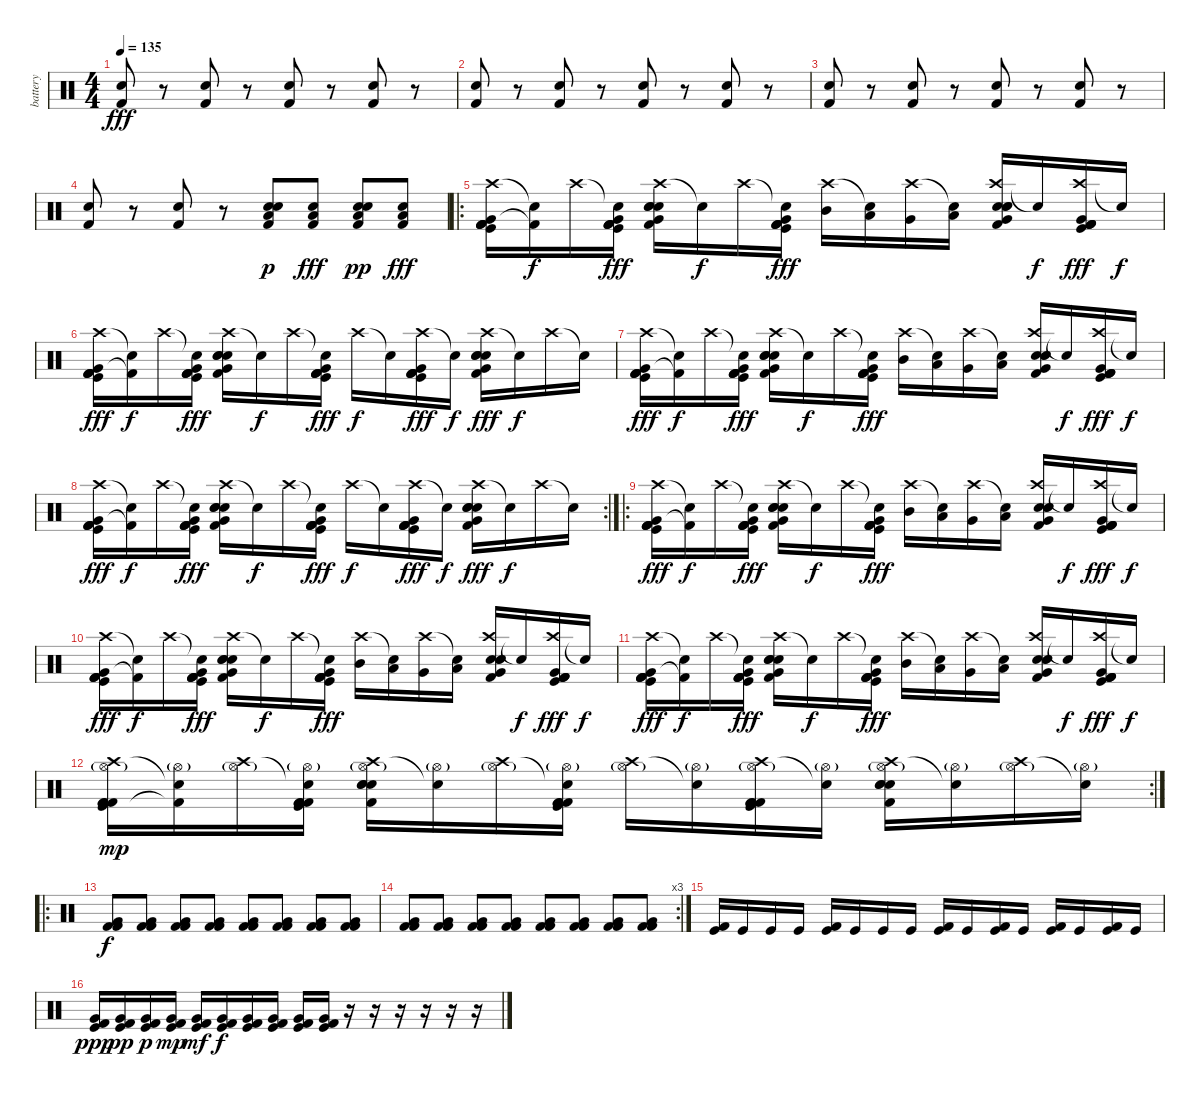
\track ("battery" "battery") {instrument percussion}
\staff {score}
\articulation defaults
\ts (4 4)
\tempo 135
\clef neutral
\ks c
("Kick (hit) 2" "Hand Clap (hit)").8{dy fff} r.8 ("Kick (hit) 2" "Hand Clap (hit)").8 r.8 ("Kick (hit) 2" "Hand Clap (hit)").8 r.8 ("Kick (hit) 2" "Hand Clap (hit)").8 r.8 |
("Kick (hit) 2" "Hand Clap (hit)").8 r.8 ("Kick (hit) 2" "Hand Clap (hit)").8 r.8 ("Kick (hit) 2" "Hand Clap (hit)").8 r.8 ("Kick (hit) 2" "Hand Clap (hit)").8 r.8 |
("Kick (hit) 2" "Hand Clap (hit)").8 r.8 ("Kick (hit) 2" "Hand Clap (hit)").8 r.8 ("Kick (hit) 2" "Hand Clap (hit)").8 r.8 ("Kick (hit) 2" "Hand Clap (hit)").8 r.8 |
("Kick (hit) 2" "Hand Clap (hit)").8 r.8 ("Kick (hit) 2" "Hand Clap (hit)").8 r.8 ("Electric Snare (hit)" "Low Floor Tom (hit)" "Kick (hit) 2" "Hand Clap (hit)").8{dy p} ("Electric Snare (hit)" "Low Floor Tom (hit)" "Kick (hit) 2").8{dy fff} ("Electric Snare (hit)" "Low Floor Tom (hit)" "Kick (hit) 2" "Hand Clap (hit)").8{dy pp} ("Electric Snare (hit)" "Low Floor Tom (hit)" "Kick (hit) 2").8{dy fff} |
\ro
("Crash high (hit)" "Very Low Tom (hit)" "Kick (hit)" "Kick (hit) 2" "Kick (hit) 2" "Kick (hit) 2").16 ("Snare (hit)"{t} "Kick (hit) 2"{t}).16{dy f} "Crash high (hit)".16 ("Snare (hit)"{t} "Very Low Tom (hit)" "Kick (hit)" "Kick (hit) 2" "Kick (hit) 2" "Kick (hit) 2").16{dy fff} ("Crash high (hit)" "Very Low Tom (hit)" "Kick (hit) 2" "Electric Snare (hit)" "Electric Snare (hit)" "Electric Snare (hit)").16 "Snare (hit)"{t}.16{dy f} "Crash high (hit)".16 ("Snare (hit)"{t} "Very Low Tom (hit)" "Kick (hit)" "Kick (hit) 2" "Kick (hit) 2" "Kick (hit) 2").16{dy fff} ("Crash high (hit)" "Mid Tom (hit)").16 ("Snare (hit)"{t} "Low Tom (hit)").16 ("Crash high (hit)" "Very Low Tom (hit)").16 ("Snare (hit)"{t} "Low Floor Tom (hit)").16 ("Crash high (hit)" "Very Low Tom (hit)" "Kick (hit) 2" "Electric Snare (hit)" "Electric Snare (hit)" "Electric Snare (hit)").16 "Snare (hit)"{t}.16{dy f} ("Crash high (hit)" "Very Low Tom (hit)" "Kick (hit)" "Kick (hit) 2" "Kick (hit) 2" "Kick (hit) 2").16{dy fff} "Snare (hit)"{t}.16{dy f} |
("Crash high (hit)" "Very Low Tom (hit)" "Kick (hit)" "Kick (hit) 2" "Kick (hit) 2" "Kick (hit) 2").16{dy fff} ("Snare (hit)"{t} "Kick (hit) 2"{t}).16{dy f} "Crash high (hit)".16 ("Snare (hit)"{t} "Very Low Tom (hit)" "Kick (hit)" "Kick (hit) 2" "Kick (hit) 2" "Kick (hit) 2").16{dy fff} ("Crash high (hit)" "Very Low Tom (hit)" "Kick (hit) 2" "Electric Snare (hit)" "Electric Snare (hit)" "Electric Snare (hit)").16 "Snare (hit)"{t}.16{dy f} "Crash high (hit)".16 ("Snare (hit)"{t} "Very Low Tom (hit)" "Kick (hit)" "Kick (hit) 2" "Kick (hit) 2" "Kick (hit) 2").16{dy fff} "Crash high (hit)".16{dy f} "Snare (hit)"{t}.16 ("Crash high (hit)" "Very Low Tom (hit)" "Kick (hit)" "Kick (hit) 2" "Kick (hit) 2" "Kick (hit) 2").16{dy fff} "Snare (hit)"{t}.16{dy f} ("Crash high (hit)" "Very Low Tom (hit)" "Kick (hit) 2" "Electric Snare (hit)" "Electric Snare (hit)" "Electric Snare (hit)").16{dy fff} "Snare (hit)"{t}.16{dy f} "Crash high (hit)".16 "Snare (hit)"{t}.16 |
("Crash high (hit)" "Very Low Tom (hit)" "Kick (hit)" "Kick (hit) 2" "Kick (hit) 2" "Kick (hit) 2").16{dy fff} ("Snare (hit)"{t} "Kick (hit) 2"{t}).16{dy f} "Crash high (hit)".16 ("Snare (hit)"{t} "Very Low Tom (hit)" "Kick (hit)" "Kick (hit) 2" "Kick (hit) 2" "Kick (hit) 2").16{dy fff} ("Crash high (hit)" "Very Low Tom (hit)" "Kick (hit) 2" "Electric Snare (hit)" "Electric Snare (hit)" "Electric Snare (hit)").16 "Snare (hit)"{t}.16{dy f} "Crash high (hit)".16 ("Snare (hit)"{t} "Very Low Tom (hit)" "Kick (hit)" "Kick (hit) 2" "Kick (hit) 2" "Kick (hit) 2").16{dy fff} ("Crash high (hit)" "Mid Tom (hit)").16 ("Snare (hit)"{t} "Low Tom (hit)").16 ("Crash high (hit)" "Very Low Tom (hit)").16 ("Snare (hit)"{t} "Low Floor Tom (hit)").16 ("Crash high (hit)" "Very Low Tom (hit)" "Kick (hit) 2" "Electric Snare (hit)" "Electric Snare (hit)" "Electric Snare (hit)").16 "Snare (hit)"{t}.16{dy f} ("Crash high (hit)" "Very Low Tom (hit)" "Kick (hit)" "Kick (hit) 2" "Kick (hit) 2" "Kick (hit) 2").16{dy fff} "Snare (hit)"{t}.16{dy f} |
\rc 2
("Crash high (hit)" "Very Low Tom (hit)" "Kick (hit)" "Kick (hit) 2" "Kick (hit) 2" "Kick (hit) 2").16{dy fff} ("Snare (hit)"{t} "Kick (hit) 2"{t}).16{dy f} "Crash high (hit)".16 ("Snare (hit)"{t} "Very Low Tom (hit)" "Kick (hit)" "Kick (hit) 2" "Kick (hit) 2" "Kick (hit) 2").16{dy fff} ("Crash high (hit)" "Very Low Tom (hit)" "Kick (hit) 2" "Electric Snare (hit)" "Electric Snare (hit)" "Electric Snare (hit)").16 "Snare (hit)"{t}.16{dy f} "Crash high (hit)".16 ("Snare (hit)"{t} "Very Low Tom (hit)" "Kick (hit)" "Kick (hit) 2" "Kick (hit) 2" "Kick (hit) 2").16{dy fff} "Crash high (hit)".16{dy f} "Snare (hit)"{t}.16 ("Crash high (hit)" "Very Low Tom (hit)" "Kick (hit)" "Kick (hit) 2" "Kick (hit) 2" "Kick (hit) 2").16{dy fff} "Snare (hit)"{t}.16{dy f} ("Crash high (hit)" "Very Low Tom (hit)" "Kick (hit) 2" "Electric Snare (hit)" "Electric Snare (hit)" "Electric Snare (hit)").16{dy fff} "Snare (hit)"{t}.16{dy f} "Crash high (hit)".16 "Snare (hit)"{t}.16 |
\ro
("Crash high (hit)" "Very Low Tom (hit)" "Kick (hit)" "Kick (hit) 2" "Kick (hit) 2" "Kick (hit) 2").16{dy fff} ("Snare (hit)"{t} "Kick (hit) 2"{t}).16{dy f} "Crash high (hit)".16 ("Snare (hit)"{t} "Very Low Tom (hit)" "Kick (hit)" "Kick (hit) 2" "Kick (hit) 2" "Kick (hit) 2").16{dy fff} ("Crash high (hit)" "Very Low Tom (hit)" "Kick (hit) 2" "Electric Snare (hit)" "Electric Snare (hit)" "Electric Snare (hit)").16 "Snare (hit)"{t}.16{dy f} "Crash high (hit)".16 ("Snare (hit)"{t} "Very Low Tom (hit)" "Kick (hit)" "Kick (hit) 2" "Kick (hit) 2" "Kick (hit) 2").16{dy fff} ("Crash high (hit)" "Mid Tom (hit)").16 ("Snare (hit)"{t} "Low Tom (hit)").16 ("Crash high (hit)" "Very Low Tom (hit)").16 ("Snare (hit)"{t} "Low Floor Tom (hit)").16 ("Crash high (hit)" "Very Low Tom (hit)" "Kick (hit) 2" "Electric Snare (hit)" "Electric Snare (hit)" "Electric Snare (hit)").16 "Snare (hit)"{t}.16{dy f} ("Crash high (hit)" "Very Low Tom (hit)" "Kick (hit)" "Kick (hit) 2" "Kick (hit) 2" "Kick (hit) 2").16{dy fff} "Snare (hit)"{t}.16{dy f} |
("Crash high (hit)" "Very Low Tom (hit)" "Kick (hit)" "Kick (hit) 2" "Kick (hit) 2" "Kick (hit) 2").16{dy fff} ("Snare (hit)"{t} "Kick (hit) 2"{t}).16{dy f} "Crash high (hit)".16 ("Snare (hit)"{t} "Very Low Tom (hit)" "Kick (hit)" "Kick (hit) 2" "Kick (hit) 2" "Kick (hit) 2").16{dy fff} ("Crash high (hit)" "Very Low Tom (hit)" "Kick (hit) 2" "Electric Snare (hit)" "Electric Snare (hit)" "Electric Snare (hit)").16 "Snare (hit)"{t}.16{dy f} "Crash high (hit)".16 ("Snare (hit)"{t} "Very Low Tom (hit)" "Kick (hit)" "Kick (hit) 2" "Kick (hit) 2" "Kick (hit) 2").16{dy fff} ("Crash high (hit)" "Mid Tom (hit)").16 ("Snare (hit)"{t} "Low Tom (hit)").16 ("Crash high (hit)" "Very Low Tom (hit)").16 ("Snare (hit)"{t} "Low Floor Tom (hit)").16 ("Crash high (hit)" "Very Low Tom (hit)" "Kick (hit) 2" "Electric Snare (hit)" "Electric Snare (hit)" "Electric Snare (hit)").16 "Snare (hit)"{t}.16{dy f} ("Crash high (hit)" "Very Low Tom (hit)" "Kick (hit)" "Kick (hit) 2" "Kick (hit) 2" "Kick (hit) 2").16{dy fff} "Snare (hit)"{t}.16{dy f} |
("Crash high (hit)" "Very Low Tom (hit)" "Kick (hit)" "Kick (hit) 2" "Kick (hit) 2" "Kick (hit) 2").16{dy fff} ("Snare (hit)"{t} "Kick (hit) 2"{t}).16{dy f} "Crash high (hit)".16 ("Snare (hit)"{t} "Very Low Tom (hit)" "Kick (hit)" "Kick (hit) 2" "Kick (hit) 2" "Kick (hit) 2").16{dy fff} ("Crash high (hit)" "Very Low Tom (hit)" "Kick (hit) 2" "Electric Snare (hit)" "Electric Snare (hit)" "Electric Snare (hit)").16 "Snare (hit)"{t}.16{dy f} "Crash high (hit)".16 ("Snare (hit)"{t} "Very Low Tom (hit)" "Kick (hit)" "Kick (hit) 2" "Kick (hit) 2" "Kick (hit) 2").16{dy fff} ("Crash high (hit)" "Mid Tom (hit)").16 ("Snare (hit)"{t} "Low Tom (hit)").16 ("Crash high (hit)" "Very Low Tom (hit)").16 ("Snare (hit)"{t} "Low Floor Tom (hit)").16 ("Crash high (hit)" "Very Low Tom (hit)" "Kick (hit) 2" "Electric Snare (hit)" "Electric Snare (hit)" "Electric Snare (hit)").16 "Snare (hit)"{t}.16{dy f} ("Crash high (hit)" "Very Low Tom (hit)" "Kick (hit)" "Kick (hit) 2" "Kick (hit) 2" "Kick (hit) 2").16{dy fff} "Snare (hit)"{t}.16{dy f} |
\rc 2
("Crash high (hit)" "Hi-Hat (open)"{g} "Kick (hit)" "Kick (hit) 2" "Kick (hit) 2" "Kick (hit) 2").16{dy mp} ("Snare (hit)"{t} "Hi-Hat (open)"{g} "Kick (hit) 2"{t}).16 ("Crash high (hit)" "Hi-Hat (open)"{g}).16 ("Snare (hit)"{t} "Hi-Hat (open)"{g} "Kick (hit)" "Kick (hit) 2" "Kick (hit) 2" "Kick (hit) 2").16 ("Crash high (hit)" "Hi-Hat (open)"{g} "Kick (hit) 2" "Electric Snare (hit)" "Electric Snare (hit)" "Electric Snare (hit)").16 ("Snare (hit)"{t} "Hi-Hat (open)"{g}).16 ("Crash high (hit)" "Hi-Hat (open)"{g}).16 ("Snare (hit)"{t} "Hi-Hat (open)"{g} "Kick (hit)" "Kick (hit) 2" "Kick (hit) 2" "Kick (hit) 2").16 ("Crash high (hit)" "Hi-Hat (open)"{g}).16 ("Snare (hit)"{t} "Hi-Hat (open)"{g}).16 ("Crash high (hit)" "Hi-Hat (open)"{g} "Kick (hit)" "Kick (hit) 2" "Kick (hit) 2" "Kick (hit) 2").16 ("Snare (hit)"{t} "Hi-Hat (open)"{g}).16 ("Crash high (hit)" "Hi-Hat (open)"{g} "Kick (hit) 2" "Electric Snare (hit)" "Electric Snare (hit)" "Electric Snare (hit)").16 ("Snare (hit)"{t} "Hi-Hat (open)"{g}).16 ("Crash high (hit)" "Hi-Hat (open)"{g}).16 ("Snare (hit)"{t} "Hi-Hat (open)"{g}).16 |
\ro
("Kick (hit) 2" "Very Low Tom (hit)" "Kick (hit) 2").8{dy f} ("Kick (hit) 2" "Very Low Tom (hit)" "Kick (hit) 2").8 ("Kick (hit) 2" "Very Low Tom (hit)" "Kick (hit) 2").8 ("Kick (hit) 2" "Very Low Tom (hit)" "Kick (hit) 2").8 ("Kick (hit) 2" "Very Low Tom (hit)" "Kick (hit) 2").8 ("Kick (hit) 2" "Very Low Tom (hit)" "Kick (hit) 2").8 ("Kick (hit) 2" "Very Low Tom (hit)" "Kick (hit) 2").8 ("Kick (hit) 2" "Very Low Tom (hit)" "Kick (hit) 2").8 |
\rc 3
("Kick (hit) 2" "Very Low Tom (hit)" "Kick (hit) 2").8 ("Kick (hit) 2" "Very Low Tom (hit)" "Kick (hit) 2").8 ("Kick (hit) 2" "Very Low Tom (hit)" "Kick (hit) 2").8 ("Kick (hit) 2" "Very Low Tom (hit)" "Kick (hit) 2").8 ("Kick (hit) 2" "Very Low Tom (hit)" "Kick (hit) 2").8 ("Kick (hit) 2" "Very Low Tom (hit)" "Kick (hit) 2").8 ("Kick (hit) 2" "Very Low Tom (hit)" "Kick (hit) 2").8 ("Kick (hit) 2" "Very Low Tom (hit)" "Kick (hit) 2").8 |
("Kick (hit) 2" "Kick (hit)").16 "Kick (hit)".16 "Kick (hit)".16 "Kick (hit)".16 ("Kick (hit) 2" "Kick (hit)").16 "Kick (hit)".16 "Kick (hit)".16 "Kick (hit)".16 ("Kick (hit) 2" "Kick (hit)").16 "Kick (hit)".16 ("Kick (hit) 2" "Kick (hit)").16 "Kick (hit)".16 ("Kick (hit) 2" "Kick (hit)").16 "Kick (hit)".16 ("Kick (hit) 2" "Kick (hit)").16 "Kick (hit)".16 |
("Very Low Tom (hit)" "Kick (hit) 2" "Kick (hit)").16{dy ppp} ("Very Low Tom (hit)" "Kick (hit) 2" "Kick (hit)").16{dy pp} ("Very Low Tom (hit)" "Kick (hit) 2" "Kick (hit)").16{dy p} ("Very Low Tom (hit)" "Kick (hit) 2" "Kick (hit)").16{dy mp} ("Very Low Tom (hit)" "Kick (hit) 2" "Kick (hit)").16{dy mf} ("Very Low Tom (hit)" "Kick (hit) 2" "Kick (hit)").16{dy f} ("Very Low Tom (hit)" "Kick (hit) 2" "Kick (hit)").16 ("Very Low Tom (hit)" "Kick (hit) 2" "Kick (hit)").16 ("Very Low Tom (hit)" "Kick (hit) 2" "Kick (hit)").16 ("Very Low Tom (hit)" "Kick (hit) 2" "Kick (hit)").16 r.16 r.16 r.16 r.16 r.16 r.16
